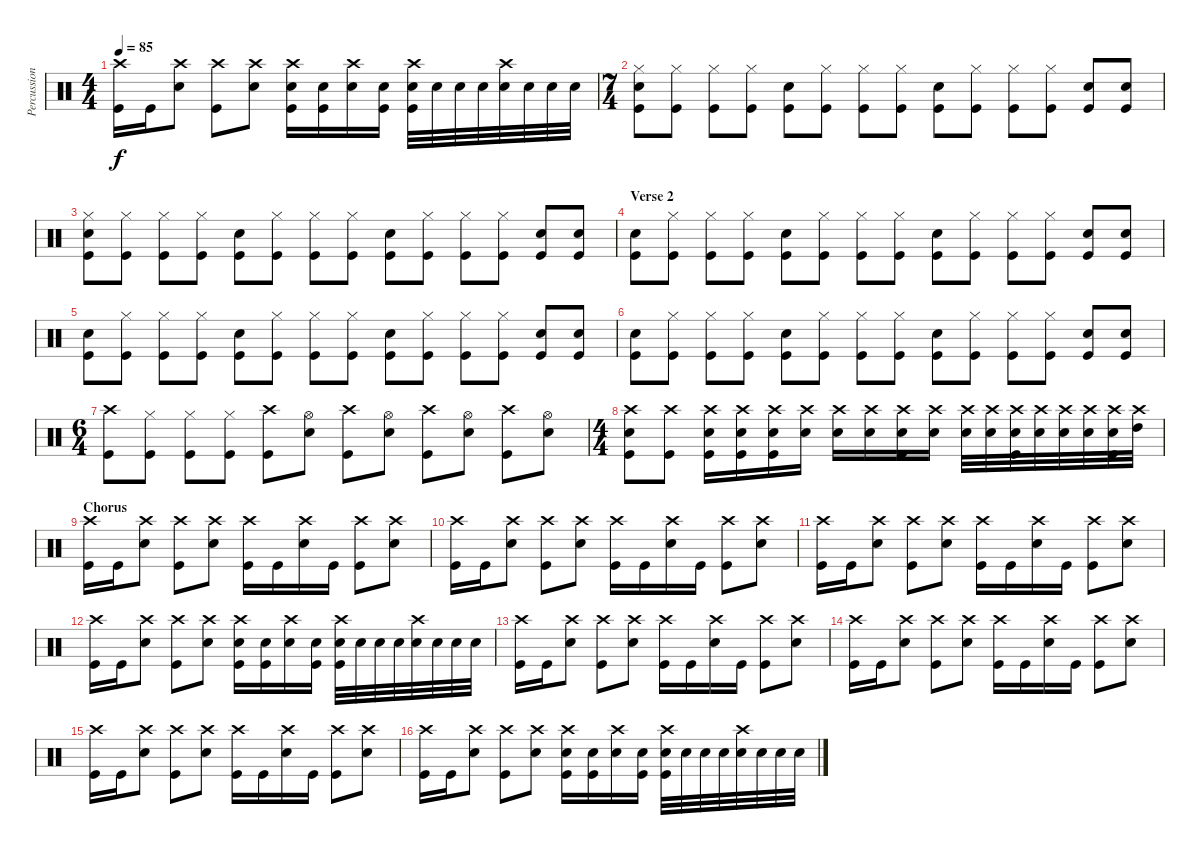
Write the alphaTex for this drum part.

\track ("Percussion" "Percussion") {instrument percussion}
\staff {score}
\articulation defaults
\ts (4 4)
\tempo 85
\clef neutral
\ks c
("Crash high (hit)" "Kick (hit)").16{dy f} "Kick (hit)".16 ("Crash high (hit)" "Snare (hit) 2").8 ("Crash high (hit)" "Kick (hit)").8 ("Crash high (hit)" "Snare (hit) 2").8 ("Crash high (hit)" "Snare (hit) 2" "Kick (hit)").16 ("Snare (hit) 2" "Kick (hit)").16 ("Crash high (hit)" "Snare (hit) 2").16 ("Snare (hit) 2" "Kick (hit)").16 ("Crash high (hit)" "Snare (hit) 2" "Kick (hit)").32 "Snare (hit) 2".32 "Snare (hit) 2".32 "Snare (hit) 2".32 ("Crash high (hit)" "Snare (hit) 2").32 "Snare (hit) 2".32 "Snare (hit) 2".32 "Snare (hit) 2".32 |
\ts (7 4)
("Hi-Hat (closed)" "Snare (hit) 2" "Kick (hit)").8 ("Hi-Hat (closed)" "Kick (hit)").8 ("Hi-Hat (closed)" "Kick (hit)").8 ("Hi-Hat (closed)" "Kick (hit)").8 ("Snare (hit) 2" "Kick (hit)").8 ("Hi-Hat (closed)" "Kick (hit)").8 ("Hi-Hat (closed)" "Kick (hit)").8 ("Hi-Hat (closed)" "Kick (hit)").8 ("Snare (hit) 2" "Kick (hit)").8 ("Hi-Hat (closed)" "Kick (hit)").8 ("Hi-Hat (closed)" "Kick (hit)").8 ("Hi-Hat (closed)" "Kick (hit)").8 ("Snare (hit) 2" "Kick (hit)").8 ("Snare (hit) 2" "Kick (hit)").8 |
("Hi-Hat (closed)" "Snare (hit) 2" "Kick (hit)").8 ("Hi-Hat (closed)" "Kick (hit)").8 ("Hi-Hat (closed)" "Kick (hit)").8 ("Hi-Hat (closed)" "Kick (hit)").8 ("Snare (hit) 2" "Kick (hit)").8 ("Hi-Hat (closed)" "Kick (hit)").8 ("Hi-Hat (closed)" "Kick (hit)").8 ("Hi-Hat (closed)" "Kick (hit)").8 ("Snare (hit) 2" "Kick (hit)").8 ("Hi-Hat (closed)" "Kick (hit)").8 ("Hi-Hat (closed)" "Kick (hit)").8 ("Hi-Hat (closed)" "Kick (hit)").8 ("Snare (hit) 2" "Kick (hit)").8 ("Snare (hit) 2" "Kick (hit)").8 |
\section ("" "Verse 2")
("Snare (hit) 2" "Kick (hit)").8 ("Hi-Hat (closed)" "Kick (hit)").8 ("Hi-Hat (closed)" "Kick (hit)").8 ("Hi-Hat (closed)" "Kick (hit)").8 ("Snare (hit) 2" "Kick (hit)").8 ("Hi-Hat (closed)" "Kick (hit)").8 ("Hi-Hat (closed)" "Kick (hit)").8 ("Hi-Hat (closed)" "Kick (hit)").8 ("Snare (hit) 2" "Kick (hit)").8 ("Hi-Hat (closed)" "Kick (hit)").8 ("Hi-Hat (closed)" "Kick (hit)").8 ("Hi-Hat (closed)" "Kick (hit)").8 ("Snare (hit) 2" "Kick (hit)").8 ("Snare (hit) 2" "Kick (hit)").8 |
("Snare (hit) 2" "Kick (hit)").8 ("Hi-Hat (closed)" "Kick (hit)").8 ("Hi-Hat (closed)" "Kick (hit)").8 ("Hi-Hat (closed)" "Kick (hit)").8 ("Snare (hit) 2" "Kick (hit)").8 ("Hi-Hat (closed)" "Kick (hit)").8 ("Hi-Hat (closed)" "Kick (hit)").8 ("Hi-Hat (closed)" "Kick (hit)").8 ("Snare (hit) 2" "Kick (hit)").8 ("Hi-Hat (closed)" "Kick (hit)").8 ("Hi-Hat (closed)" "Kick (hit)").8 ("Hi-Hat (closed)" "Kick (hit)").8 ("Snare (hit) 2" "Kick (hit)").8 ("Snare (hit) 2" "Kick (hit)").8 |
("Snare (hit) 2" "Kick (hit)").8 ("Hi-Hat (closed)" "Kick (hit)").8 ("Hi-Hat (closed)" "Kick (hit)").8 ("Hi-Hat (closed)" "Kick (hit)").8 ("Snare (hit) 2" "Kick (hit)").8 ("Hi-Hat (closed)" "Kick (hit)").8 ("Hi-Hat (closed)" "Kick (hit)").8 ("Hi-Hat (closed)" "Kick (hit)").8 ("Snare (hit) 2" "Kick (hit)").8 ("Hi-Hat (closed)" "Kick (hit)").8 ("Hi-Hat (closed)" "Kick (hit)").8 ("Hi-Hat (closed)" "Kick (hit)").8 ("Snare (hit) 2" "Kick (hit)").8 ("Snare (hit) 2" "Kick (hit)").8 |
\ts (6 4)
("Crash high (hit)" "Kick (hit)").8 ("Hi-Hat (closed)" "Kick (hit)").8 ("Hi-Hat (closed)" "Kick (hit)").8 ("Hi-Hat (closed)" "Kick (hit)").8 ("Crash high (hit)" "Kick (hit)").8 ("Hi-Hat (open)" "Snare (hit) 2").8 ("Crash high (hit)" "Kick (hit)").8 ("Hi-Hat (open)" "Snare (hit) 2").8 ("Crash high (hit)" "Kick (hit)").8 ("Hi-Hat (open)" "Snare (hit) 2").8 ("Crash high (hit)" "Kick (hit)").8 ("Hi-Hat (open)" "Snare (hit) 2").8 |
\ts (4 4)
("Crash high (hit)" "Snare (hit) 2" "Kick (hit)").8 ("Crash high (hit)" "Kick (hit)").8 ("Crash high (hit)" "Snare (hit) 2" "Kick (hit)").16 ("Crash high (hit)" "Snare (hit) 2" "Kick (hit)").16 ("Crash high (hit)" "Snare (hit) 2" "Kick (hit)").16 ("Crash high (hit)" "Snare (hit) 2").16 ("Crash high (hit)" "Snare (hit) 2").16 ("Crash high (hit)" "Snare (hit) 2").16 ("Crash high (hit)" "Snare (hit) 2" "Kick (hit)").16 ("Crash high (hit)" "Snare (hit) 2").16 ("Crash high (hit)" "Snare (hit) 2").32 ("Crash high (hit)" "Snare (hit) 2").32 ("Crash high (hit)" "Snare (hit) 2" "Kick (hit)").32 ("Crash high (hit)" "Snare (hit) 2").32 ("Crash high (hit)" "Snare (hit) 2").32 ("Crash high (hit)" "Snare (hit) 2").32 ("Crash high (hit)" "Snare (hit) 2" "Kick (hit)").32 ("Crash high (hit)" "High Tom (hit)").32 |
\section ("" "Chorus")
("Crash high (hit)" "Kick (hit)").16 "Kick (hit)".16 ("Crash high (hit)" "Snare (hit) 2").8 ("Crash high (hit)" "Kick (hit)").8 ("Crash high (hit)" "Snare (hit) 2").8 ("Crash high (hit)" "Kick (hit)").16 "Kick (hit)".16 ("Crash high (hit)" "Snare (hit) 2").16 "Kick (hit)".16 ("Crash high (hit)" "Kick (hit)").8 ("Crash high (hit)" "Snare (hit) 2").8 |
("Crash high (hit)" "Kick (hit)").16 "Kick (hit)".16 ("Crash high (hit)" "Snare (hit) 2").8 ("Crash high (hit)" "Kick (hit)").8 ("Crash high (hit)" "Snare (hit) 2").8 ("Crash high (hit)" "Kick (hit)").16 "Kick (hit)".16 ("Crash high (hit)" "Snare (hit) 2").16 "Kick (hit)".16 ("Crash high (hit)" "Kick (hit)").8 ("Crash high (hit)" "Snare (hit) 2").8 |
("Crash high (hit)" "Kick (hit)").16 "Kick (hit)".16 ("Crash high (hit)" "Snare (hit) 2").8 ("Crash high (hit)" "Kick (hit)").8 ("Crash high (hit)" "Snare (hit) 2").8 ("Crash high (hit)" "Kick (hit)").16 "Kick (hit)".16 ("Crash high (hit)" "Snare (hit) 2").16 "Kick (hit)".16 ("Crash high (hit)" "Kick (hit)").8 ("Crash high (hit)" "Snare (hit) 2").8 |
("Crash high (hit)" "Kick (hit)").16 "Kick (hit)".16 ("Crash high (hit)" "Snare (hit) 2").8 ("Crash high (hit)" "Kick (hit)").8 ("Crash high (hit)" "Snare (hit) 2").8 ("Crash high (hit)" "Snare (hit) 2" "Kick (hit)").16 ("Snare (hit) 2" "Kick (hit)").16 ("Crash high (hit)" "Snare (hit) 2").16 ("Snare (hit) 2" "Kick (hit)").16 ("Crash high (hit)" "Snare (hit) 2" "Kick (hit)").32 "Snare (hit) 2".32 "Snare (hit) 2".32 "Snare (hit) 2".32 ("Crash high (hit)" "Snare (hit) 2").32 "Snare (hit) 2".32 "Snare (hit) 2".32 "Snare (hit) 2".32 |
("Crash high (hit)" "Kick (hit)").16 "Kick (hit)".16 ("Crash high (hit)" "Snare (hit) 2").8 ("Crash high (hit)" "Kick (hit)").8 ("Crash high (hit)" "Snare (hit) 2").8 ("Crash high (hit)" "Kick (hit)").16 "Kick (hit)".16 ("Crash high (hit)" "Snare (hit) 2").16 "Kick (hit)".16 ("Crash high (hit)" "Kick (hit)").8 ("Crash high (hit)" "Snare (hit) 2").8 |
("Crash high (hit)" "Kick (hit)").16 "Kick (hit)".16 ("Crash high (hit)" "Snare (hit) 2").8 ("Crash high (hit)" "Kick (hit)").8 ("Crash high (hit)" "Snare (hit) 2").8 ("Crash high (hit)" "Kick (hit)").16 "Kick (hit)".16 ("Crash high (hit)" "Snare (hit) 2").16 "Kick (hit)".16 ("Crash high (hit)" "Kick (hit)").8 ("Crash high (hit)" "Snare (hit) 2").8 |
("Crash high (hit)" "Kick (hit)").16 "Kick (hit)".16 ("Crash high (hit)" "Snare (hit) 2").8 ("Crash high (hit)" "Kick (hit)").8 ("Crash high (hit)" "Snare (hit) 2").8 ("Crash high (hit)" "Kick (hit)").16 "Kick (hit)".16 ("Crash high (hit)" "Snare (hit) 2").16 "Kick (hit)".16 ("Crash high (hit)" "Kick (hit)").8 ("Crash high (hit)" "Snare (hit) 2").8 |
("Crash high (hit)" "Kick (hit)").16 "Kick (hit)".16 ("Crash high (hit)" "Snare (hit) 2").8 ("Crash high (hit)" "Kick (hit)").8 ("Crash high (hit)" "Snare (hit) 2").8 ("Crash high (hit)" "Snare (hit) 2" "Kick (hit)").16 ("Snare (hit) 2" "Kick (hit)").16 ("Crash high (hit)" "Snare (hit) 2").16 ("Snare (hit) 2" "Kick (hit)").16 ("Crash high (hit)" "Snare (hit) 2" "Kick (hit)").32 "Snare (hit) 2".32 "Snare (hit) 2".32 "Snare (hit) 2".32 ("Crash high (hit)" "Snare (hit) 2").32 "Snare (hit) 2".32 "Snare (hit) 2".32 "Snare (hit) 2".32
